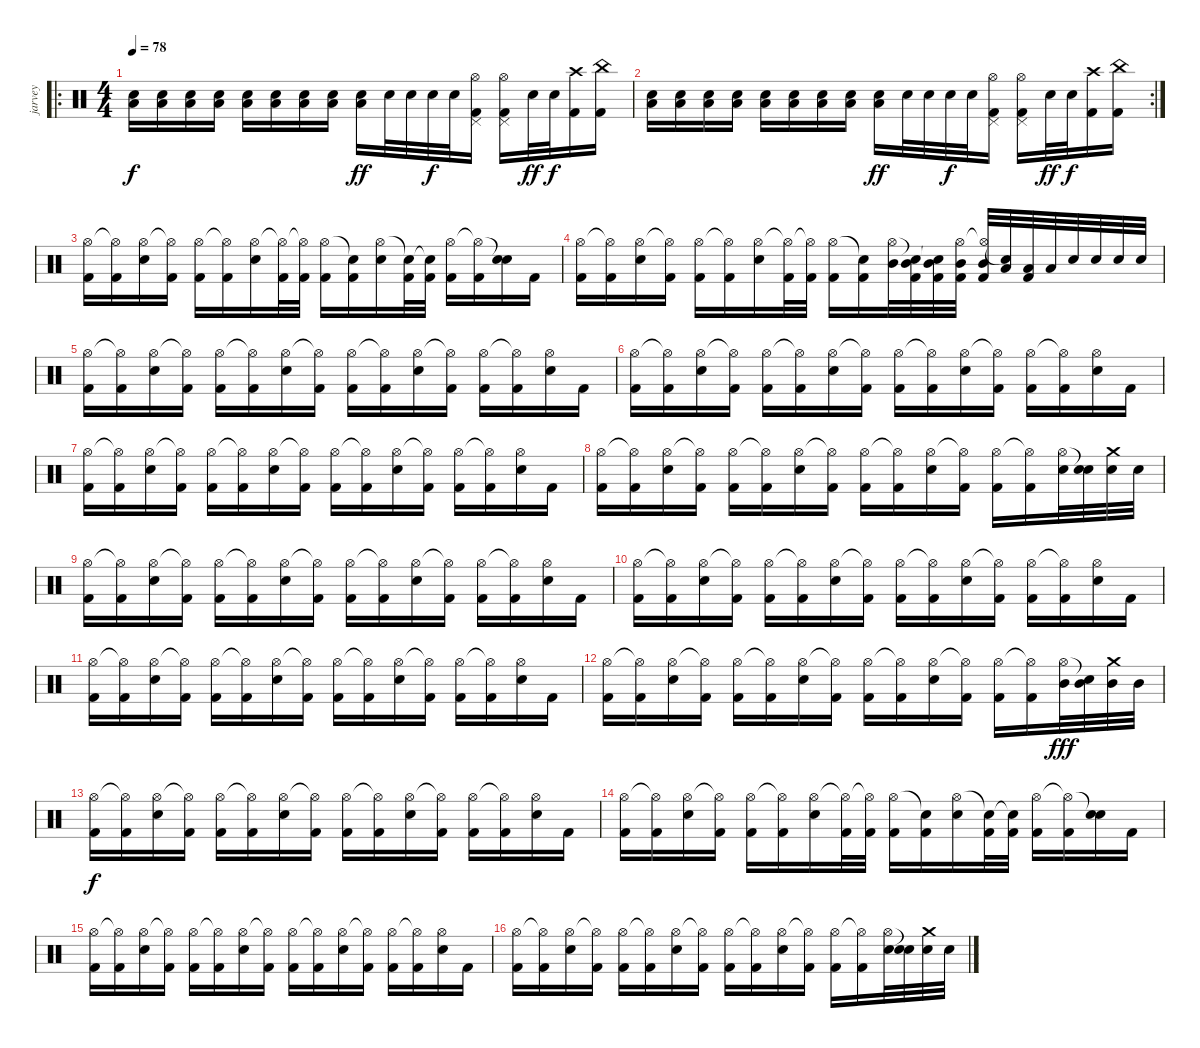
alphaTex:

\track ("jarvey" "jarvey") {instrument percussion}
\staff {score}
\articulation defaults
\ro
\ts (4 4)
\tempo 78
\clef neutral
\ks c
("Electric Snare (hit)" "Low Floor Tom (hit)").16{dy f volume 8} ("Electric Snare (hit)" "Low Floor Tom (hit)").16 ("Electric Snare (hit)" "Low Floor Tom (hit)").16{volume 10} ("Electric Snare (hit)" "Low Floor Tom (hit)").16 ("Electric Snare (hit)" "Low Floor Tom (hit)").16{volume 13} ("Electric Snare (hit)" "Low Floor Tom (hit)").16 ("Electric Snare (hit)" "Low Floor Tom (hit)").16{volume 16} ("Electric Snare (hit)" "Low Floor Tom (hit)").16 ("Electric Snare (hit)" "Low Floor Tom (hit)").16{dy ff} "Electric Snare (hit)".32 "Electric Snare (hit)".32 "Electric Snare (hit)".32{dy f} "Electric Snare (hit)".32 ("Kick (hit) 2" "Pedal Hi-Hat (hit)" "Hi-Hat (open)").16 ("Kick (hit) 2" "Pedal Hi-Hat (hit)" "Hi-Hat (open)").16 "Electric Snare (hit)".32{dy ff} "Electric Snare (hit)".32{dy f} ("Kick (hit) 2" "Crash high (hit)").16 ("Kick (hit) 2" "China (hit)").16 |
\rc 2
("Electric Snare (hit)" "Low Floor Tom (hit)").16{volume 8} ("Electric Snare (hit)" "Low Floor Tom (hit)").16 ("Electric Snare (hit)" "Low Floor Tom (hit)").16{volume 10} ("Electric Snare (hit)" "Low Floor Tom (hit)").16 ("Electric Snare (hit)" "Low Floor Tom (hit)").16{volume 13} ("Electric Snare (hit)" "Low Floor Tom (hit)").16 ("Electric Snare (hit)" "Low Floor Tom (hit)").16{volume 16} ("Electric Snare (hit)" "Low Floor Tom (hit)").16 ("Electric Snare (hit)" "Low Floor Tom (hit)").16{dy ff} "Electric Snare (hit)".32 "Electric Snare (hit)".32 "Electric Snare (hit)".32{dy f} "Electric Snare (hit)".32 ("Kick (hit) 2" "Pedal Hi-Hat (hit)" "Hi-Hat (open)").16 ("Kick (hit) 2" "Pedal Hi-Hat (hit)" "Hi-Hat (open)").16 "Electric Snare (hit)".32{dy ff} "Electric Snare (hit)".32{dy f} ("Kick (hit) 2" "Crash high (hit)").16 ("Kick (hit) 2" "China (hit)").16 |
("Hi-Hat (open)" "Kick (hit) 2").16 ("Hi-Hat (open)"{t} "Kick (hit) 2").16 ("Hi-Hat (open)" "Electric Snare (hit)").16 ("Hi-Hat (open)"{t} "Kick (hit) 2").16 ("Hi-Hat (open)" "Kick (hit) 2").16 ("Hi-Hat (open)"{t} "Kick (hit) 2").16 ("Hi-Hat (open)" "Electric Snare (hit)").16 ("Hi-Hat (open)"{t} "Kick (hit) 2").32 ("Hi-Hat (open)"{t} "Kick (hit) 2").32 ("Hi-Hat (open)" "Kick (hit) 2").16 ("Snare (hit)"{t} "Kick (hit) 2").16 ("Hi-Hat (open)" "Electric Snare (hit)").16 ("Snare (hit)"{t} "Kick (hit) 2").32 ("Snare (hit)"{t} "Kick (hit) 2").32 ("Hi-Hat (open)" "Kick (hit) 2").16 ("Hi-Hat (open)"{t} "Kick (hit) 2").16 ("Snare (hit)"{t} "Electric Snare (hit)").16 "Kick (hit) 2".16 |
("Hi-Hat (open)" "Kick (hit) 2").16 ("Hi-Hat (open)"{t} "Kick (hit) 2").16 ("Hi-Hat (open)" "Electric Snare (hit)").16 ("Hi-Hat (open)"{t} "Kick (hit) 2").16 ("Hi-Hat (open)" "Kick (hit) 2").16 ("Hi-Hat (open)"{t} "Kick (hit) 2").16 ("Hi-Hat (open)" "Electric Snare (hit)").16 ("Hi-Hat (open)"{t} "Kick (hit) 2").32 ("Hi-Hat (open)"{t} "Kick (hit) 2").32 ("Hi-Hat (open)" "Kick (hit) 2").16 ("Snare (hit)"{t} "Kick (hit) 2").16 ("Hi-Hat (open)" "Mid Tom (hit)").32 ("Snare (hit)"{t} "Mid Tom (hit)" "Kick (hit) 2").32 ("Snare (hit)"{t} "Mid Tom (hit)" "Kick (hit) 2").32 ("Hi-Hat (open)" "Mid Tom (hit)" "Kick (hit) 2").32 ("Hi-Hat (open)"{t} "Mid Tom (hit)" "Kick (hit) 2").32 ("Snare (hit)"{t} "Low Tom (hit)").32 ("Low Tom (hit)" "Kick (hit) 2").32 "Low Tom (hit)".32 "Electric Snare (hit)".32 "Electric Snare (hit)".32 "Electric Snare (hit)".32 "Electric Snare (hit)".32 |
("Hi-Hat (open)" "Kick (hit) 2").16 ("Hi-Hat (open)"{t} "Kick (hit) 2").16 ("Hi-Hat (open)" "Electric Snare (hit)").16 ("Hi-Hat (open)"{t} "Kick (hit) 2").16 ("Hi-Hat (open)" "Kick (hit) 2").16 ("Hi-Hat (open)"{t} "Kick (hit) 2").16 ("Hi-Hat (open)" "Electric Snare (hit)").16 ("Hi-Hat (open)"{t} "Kick (hit) 2").16 ("Hi-Hat (open)" "Kick (hit) 2").16 ("Hi-Hat (open)"{t} "Kick (hit) 2").16 ("Hi-Hat (open)" "Electric Snare (hit)").16 ("Hi-Hat (open)"{t} "Kick (hit) 2").16 ("Hi-Hat (open)" "Kick (hit) 2").16 ("Hi-Hat (open)"{t} "Kick (hit) 2").16 ("Hi-Hat (open)" "Electric Snare (hit)").16 "Kick (hit) 2".16 |
("Hi-Hat (open)" "Kick (hit) 2").16 ("Hi-Hat (open)"{t} "Kick (hit) 2").16 ("Hi-Hat (open)" "Electric Snare (hit)").16 ("Hi-Hat (open)"{t} "Kick (hit) 2").16 ("Hi-Hat (open)" "Kick (hit) 2").16 ("Hi-Hat (open)"{t} "Kick (hit) 2").16 ("Hi-Hat (open)" "Electric Snare (hit)").16 ("Hi-Hat (open)"{t} "Kick (hit) 2").16 ("Hi-Hat (open)" "Kick (hit) 2").16 ("Hi-Hat (open)"{t} "Kick (hit) 2").16 ("Hi-Hat (open)" "Electric Snare (hit)").16 ("Hi-Hat (open)"{t} "Kick (hit) 2").16 ("Hi-Hat (open)" "Kick (hit) 2").16 ("Hi-Hat (open)"{t} "Kick (hit) 2").16 ("Hi-Hat (open)" "Electric Snare (hit)").16 "Kick (hit) 2".16 |
("Hi-Hat (open)" "Kick (hit) 2").16 ("Hi-Hat (open)"{t} "Kick (hit) 2").16 ("Hi-Hat (open)" "Electric Snare (hit)").16 ("Hi-Hat (open)"{t} "Kick (hit) 2").16 ("Hi-Hat (open)" "Kick (hit) 2").16 ("Hi-Hat (open)"{t} "Kick (hit) 2").16 ("Hi-Hat (open)" "Electric Snare (hit)").16 ("Hi-Hat (open)"{t} "Kick (hit) 2").16 ("Hi-Hat (open)" "Kick (hit) 2").16 ("Hi-Hat (open)"{t} "Kick (hit) 2").16 ("Hi-Hat (open)" "Electric Snare (hit)").16 ("Hi-Hat (open)"{t} "Kick (hit) 2").16 ("Hi-Hat (open)" "Kick (hit) 2").16 ("Hi-Hat (open)"{t} "Kick (hit) 2").16 ("Hi-Hat (open)" "Electric Snare (hit)").16 "Kick (hit) 2".16 |
("Hi-Hat (open)" "Kick (hit) 2").16 ("Hi-Hat (open)"{t} "Kick (hit) 2").16 ("Hi-Hat (open)" "Electric Snare (hit)").16 ("Hi-Hat (open)"{t} "Kick (hit) 2").16 ("Hi-Hat (open)" "Kick (hit) 2").16 ("Hi-Hat (open)"{t} "Kick (hit) 2").16 ("Hi-Hat (open)" "Electric Snare (hit)").16 ("Hi-Hat (open)"{t} "Kick (hit) 2").16 ("Hi-Hat (open)" "Kick (hit) 2").16 ("Hi-Hat (open)"{t} "Kick (hit) 2").16 ("Hi-Hat (open)" "Electric Snare (hit)").16 ("Hi-Hat (open)"{t} "Kick (hit) 2").16 ("Hi-Hat (open)" "Kick (hit) 2").16 ("Hi-Hat (open)"{t} "Kick (hit) 2").16 ("Hi-Hat (open)" "Electric Snare (hit)").32 ("Snare (hit)"{t} "Electric Snare (hit)").32 ("Crash medium (hit)" "Electric Snare (hit)").32 "Electric Snare (hit)".32 |
("Hi-Hat (open)" "Kick (hit) 2").16 ("Hi-Hat (open)"{t} "Kick (hit) 2").16 ("Hi-Hat (open)" "Electric Snare (hit)").16 ("Hi-Hat (open)"{t} "Kick (hit) 2").16 ("Hi-Hat (open)" "Kick (hit) 2").16 ("Hi-Hat (open)"{t} "Kick (hit) 2").16 ("Hi-Hat (open)" "Electric Snare (hit)").16 ("Hi-Hat (open)"{t} "Kick (hit) 2").16 ("Hi-Hat (open)" "Kick (hit) 2").16 ("Hi-Hat (open)"{t} "Kick (hit) 2").16 ("Hi-Hat (open)" "Electric Snare (hit)").16 ("Hi-Hat (open)"{t} "Kick (hit) 2").16 ("Hi-Hat (open)" "Kick (hit) 2").16 ("Hi-Hat (open)"{t} "Kick (hit) 2").16 ("Hi-Hat (open)" "Electric Snare (hit)").16 "Kick (hit) 2".16 |
("Hi-Hat (open)" "Kick (hit) 2").16 ("Hi-Hat (open)"{t} "Kick (hit) 2").16 ("Hi-Hat (open)" "Electric Snare (hit)").16 ("Hi-Hat (open)"{t} "Kick (hit) 2").16 ("Hi-Hat (open)" "Kick (hit) 2").16 ("Hi-Hat (open)"{t} "Kick (hit) 2").16 ("Hi-Hat (open)" "Electric Snare (hit)").16 ("Hi-Hat (open)"{t} "Kick (hit) 2").16 ("Hi-Hat (open)" "Kick (hit) 2").16 ("Hi-Hat (open)"{t} "Kick (hit) 2").16 ("Hi-Hat (open)" "Electric Snare (hit)").16 ("Hi-Hat (open)"{t} "Kick (hit) 2").16 ("Hi-Hat (open)" "Kick (hit) 2").16 ("Hi-Hat (open)"{t} "Kick (hit) 2").16 ("Hi-Hat (open)" "Electric Snare (hit)").16 "Kick (hit) 2".16 |
("Hi-Hat (open)" "Kick (hit) 2").16 ("Hi-Hat (open)"{t} "Kick (hit) 2").16 ("Hi-Hat (open)" "Electric Snare (hit)").16 ("Hi-Hat (open)"{t} "Kick (hit) 2").16 ("Hi-Hat (open)" "Kick (hit) 2").16 ("Hi-Hat (open)"{t} "Kick (hit) 2").16 ("Hi-Hat (open)" "Electric Snare (hit)").16 ("Hi-Hat (open)"{t} "Kick (hit) 2").16 ("Hi-Hat (open)" "Kick (hit) 2").16 ("Hi-Hat (open)"{t} "Kick (hit) 2").16 ("Hi-Hat (open)" "Electric Snare (hit)").16 ("Hi-Hat (open)"{t} "Kick (hit) 2").16 ("Hi-Hat (open)" "Kick (hit) 2").16 ("Hi-Hat (open)"{t} "Kick (hit) 2").16 ("Hi-Hat (open)" "Electric Snare (hit)").16 "Kick (hit) 2".16 |
("Hi-Hat (open)" "Kick (hit) 2").16 ("Hi-Hat (open)"{t} "Kick (hit) 2").16 ("Hi-Hat (open)" "Electric Snare (hit)").16 ("Hi-Hat (open)"{t} "Kick (hit) 2").16 ("Hi-Hat (open)" "Kick (hit) 2").16 ("Hi-Hat (open)"{t} "Kick (hit) 2").16 ("Hi-Hat (open)" "Electric Snare (hit)").16 ("Hi-Hat (open)"{t} "Kick (hit) 2").16 ("Hi-Hat (open)" "Kick (hit) 2").16 ("Hi-Hat (open)"{t} "Kick (hit) 2").16 ("Hi-Hat (open)" "Electric Snare (hit)").16 ("Hi-Hat (open)"{t} "Kick (hit) 2").16 ("Hi-Hat (open)" "Kick (hit) 2").16 ("Hi-Hat (open)"{t} "Kick (hit) 2").16 ("Hi-Hat (open)" "Mid Tom (hit)").32{dy fff} ("Snare (hit)"{t} "Mid Tom (hit)").32 ("Crash medium (hit)" "Mid Tom (hit)").32 "Mid Tom (hit)".32 |
("Hi-Hat (open)" "Kick (hit) 2").16{dy f} ("Hi-Hat (open)"{t} "Kick (hit) 2").16 ("Hi-Hat (open)" "Electric Snare (hit)").16 ("Hi-Hat (open)"{t} "Kick (hit) 2").16 ("Hi-Hat (open)" "Kick (hit) 2").16 ("Hi-Hat (open)"{t} "Kick (hit) 2").16 ("Hi-Hat (open)" "Electric Snare (hit)").16 ("Hi-Hat (open)"{t} "Kick (hit) 2").16 ("Hi-Hat (open)" "Kick (hit) 2").16 ("Hi-Hat (open)"{t} "Kick (hit) 2").16 ("Hi-Hat (open)" "Electric Snare (hit)").16 ("Hi-Hat (open)"{t} "Kick (hit) 2").16 ("Hi-Hat (open)" "Kick (hit) 2").16 ("Hi-Hat (open)"{t} "Kick (hit) 2").16 ("Hi-Hat (open)" "Electric Snare (hit)").16 "Kick (hit) 2".16 |
("Hi-Hat (open)" "Kick (hit) 2").16 ("Hi-Hat (open)"{t} "Kick (hit) 2").16 ("Hi-Hat (open)" "Electric Snare (hit)").16 ("Hi-Hat (open)"{t} "Kick (hit) 2").16 ("Hi-Hat (open)" "Kick (hit) 2").16 ("Hi-Hat (open)"{t} "Kick (hit) 2").16 ("Hi-Hat (open)" "Electric Snare (hit)").16 ("Hi-Hat (open)"{t} "Kick (hit) 2").32 ("Hi-Hat (open)"{t} "Kick (hit) 2").32 ("Hi-Hat (open)" "Kick (hit) 2").16 ("Snare (hit)"{t} "Kick (hit) 2").16 ("Hi-Hat (open)" "Electric Snare (hit)").16 ("Snare (hit)"{t} "Kick (hit) 2").32 ("Snare (hit)"{t} "Kick (hit) 2").32 ("Hi-Hat (open)" "Kick (hit) 2").16 ("Hi-Hat (open)"{t} "Kick (hit) 2").16 ("Snare (hit)"{t} "Electric Snare (hit)").16 "Kick (hit) 2".16 |
("Hi-Hat (open)" "Kick (hit) 2").16 ("Hi-Hat (open)"{t} "Kick (hit) 2").16 ("Hi-Hat (open)" "Electric Snare (hit)").16 ("Hi-Hat (open)"{t} "Kick (hit) 2").16 ("Hi-Hat (open)" "Kick (hit) 2").16 ("Hi-Hat (open)"{t} "Kick (hit) 2").16 ("Hi-Hat (open)" "Electric Snare (hit)").16 ("Hi-Hat (open)"{t} "Kick (hit) 2").16 ("Hi-Hat (open)" "Kick (hit) 2").16 ("Hi-Hat (open)"{t} "Kick (hit) 2").16 ("Hi-Hat (open)" "Electric Snare (hit)").16 ("Hi-Hat (open)"{t} "Kick (hit) 2").16 ("Hi-Hat (open)" "Kick (hit) 2").16 ("Hi-Hat (open)"{t} "Kick (hit) 2").16 ("Hi-Hat (open)" "Electric Snare (hit)").16 "Kick (hit) 2".16 |
("Hi-Hat (open)" "Kick (hit) 2").16 ("Hi-Hat (open)"{t} "Kick (hit) 2").16 ("Hi-Hat (open)" "Electric Snare (hit)").16 ("Hi-Hat (open)"{t} "Kick (hit) 2").16 ("Hi-Hat (open)" "Kick (hit) 2").16 ("Hi-Hat (open)"{t} "Kick (hit) 2").16 ("Hi-Hat (open)" "Electric Snare (hit)").16 ("Hi-Hat (open)"{t} "Kick (hit) 2").16 ("Hi-Hat (open)" "Kick (hit) 2").16 ("Hi-Hat (open)"{t} "Kick (hit) 2").16 ("Hi-Hat (open)" "Electric Snare (hit)").16 ("Hi-Hat (open)"{t} "Kick (hit) 2").16 ("Hi-Hat (open)" "Kick (hit) 2").16 ("Hi-Hat (open)"{t} "Kick (hit) 2").16 ("Hi-Hat (open)" "Electric Snare (hit)").32 ("Snare (hit)"{t} "Electric Snare (hit)").32 ("Crash medium (hit)" "Electric Snare (hit)").32 "Electric Snare (hit)".32
